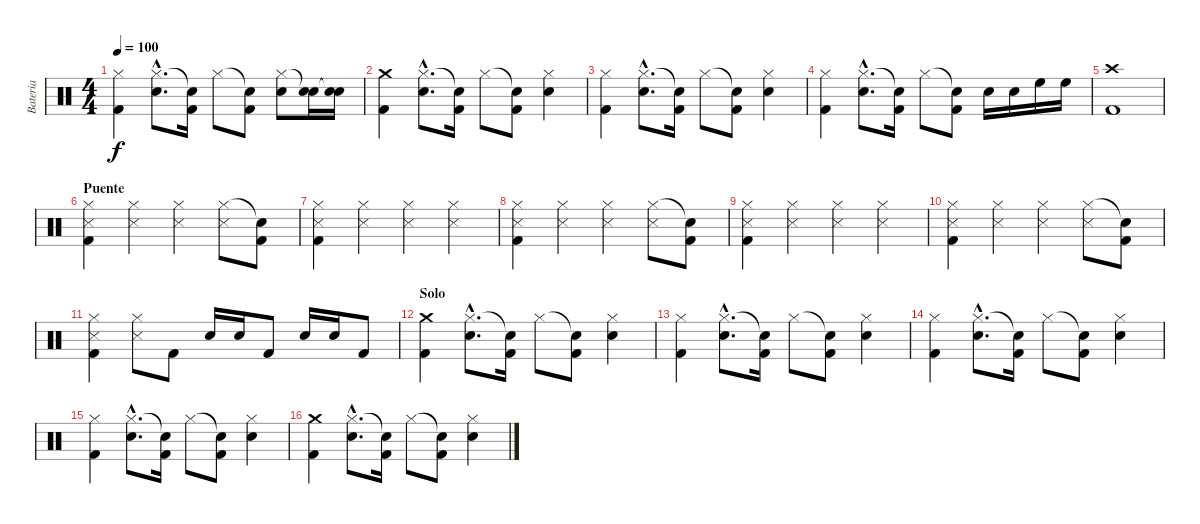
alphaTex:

\track ("Bateria" "Bateria") {instrument percussion}
\staff {score}
\articulation defaults
\ts (4 4)
\tempo 100
\clef neutral
\ks c
("Hi-Hat (closed)" "Kick (hit) 2").4{dy f} ("Hi-Hat (closed)"{hac} "Electric Snare (hit)"{hac}).8{d} ("Snare (hit)"{t} "Kick (hit) 2").16 "Hi-Hat (closed)".8 ("Snare (hit)"{t} "Kick (hit) 2").8 ("Hi-Hat (closed)" "Electric Snare (hit)").8 ("Snare (hit)"{t} "Electric Snare (hit)").16 ("Snare (hit)"{t} "Electric Snare (hit)").16 |
("Crash medium (hit)" "Kick (hit) 2").4 ("Hi-Hat (closed)"{hac} "Electric Snare (hit)"{hac}).8{d} ("Snare (hit)"{t} "Kick (hit) 2").16 "Hi-Hat (closed)".8 ("Snare (hit)"{t} "Kick (hit) 2").8 ("Hi-Hat (closed)" "Electric Snare (hit)").4 |
("Hi-Hat (closed)" "Kick (hit) 2").4 ("Hi-Hat (closed)"{hac} "Electric Snare (hit)"{hac}).8{d} ("Snare (hit)"{t} "Kick (hit) 2").16 "Hi-Hat (closed)".8 ("Snare (hit)"{t} "Kick (hit) 2").8 ("Hi-Hat (closed)" "Electric Snare (hit)").4 |
("Hi-Hat (closed)" "Kick (hit) 2").4 ("Hi-Hat (closed)"{hac} "Electric Snare (hit)"{hac}).8{d} ("Snare (hit)"{t} "Kick (hit) 2").16 "Hi-Hat (closed)".8 ("Snare (hit)"{t} "Kick (hit) 2").8 "Electric Snare (hit)".16 "Electric Snare (hit)".16 "High Floor Tom (hit)".16 "High Floor Tom (hit)".16 |
("Crash high (hit)" "Kick (hit) 2").1 |
\section ("" "Puente")
("Hi-Hat (closed)" "Snare (side stick) 3" "Kick (hit) 2").4 ("Hi-Hat (closed)" "Snare (side stick) 3").4 ("Hi-Hat (closed)" "Snare (side stick) 3").4 ("Hi-Hat (closed)" "Snare (side stick) 3").8 ("Snare (hit)"{t} "Kick (hit) 2").8 |
("Hi-Hat (closed)" "Snare (side stick) 3" "Kick (hit) 2").4 ("Hi-Hat (closed)" "Snare (side stick) 3").4 ("Hi-Hat (closed)" "Snare (side stick) 3").4 ("Hi-Hat (closed)" "Snare (side stick) 3").4 |
("Hi-Hat (closed)" "Snare (side stick) 3" "Kick (hit) 2").4 ("Hi-Hat (closed)" "Snare (side stick) 3").4 ("Hi-Hat (closed)" "Snare (side stick) 3").4 ("Hi-Hat (closed)" "Snare (side stick) 3").8 ("Snare (hit)"{t} "Kick (hit) 2").8 |
("Hi-Hat (closed)" "Snare (side stick) 3" "Kick (hit) 2").4 ("Hi-Hat (closed)" "Snare (side stick) 3").4 ("Hi-Hat (closed)" "Snare (side stick) 3").4 ("Hi-Hat (closed)" "Snare (side stick) 3").4 |
("Hi-Hat (closed)" "Snare (side stick) 3" "Kick (hit) 2").4 ("Hi-Hat (closed)" "Snare (side stick) 3").4 ("Hi-Hat (closed)" "Snare (side stick) 3").4 ("Hi-Hat (closed)" "Snare (side stick) 3").8 ("Snare (hit)"{t} "Kick (hit) 2").8 |
("Hi-Hat (closed)" "Snare (side stick) 3" "Kick (hit) 2").4 ("Hi-Hat (closed)" "Snare (side stick) 3").8 "Kick (hit) 2".8 "Electric Snare (hit)".16 "Electric Snare (hit)".16 "Kick (hit) 2".8 "Electric Snare (hit)".16 "Electric Snare (hit)".16 "Kick (hit) 2".8 |
\section ("" "Solo")
("Crash medium (hit)" "Kick (hit) 2").4 ("Hi-Hat (closed)"{hac} "Electric Snare (hit)"{hac}).8{d} ("Snare (hit)"{t} "Kick (hit) 2").16 "Hi-Hat (closed)".8 ("Snare (hit)"{t} "Kick (hit) 2").8 ("Hi-Hat (closed)" "Electric Snare (hit)").4 |
("Hi-Hat (closed)" "Kick (hit) 2").4 ("Hi-Hat (closed)"{hac} "Electric Snare (hit)"{hac}).8{d} ("Snare (hit)"{t} "Kick (hit) 2").16 "Hi-Hat (closed)".8 ("Snare (hit)"{t} "Kick (hit) 2").8 ("Hi-Hat (closed)" "Electric Snare (hit)").4 |
("Hi-Hat (closed)" "Kick (hit) 2").4 ("Hi-Hat (closed)"{hac} "Electric Snare (hit)"{hac}).8{d} ("Snare (hit)"{t} "Kick (hit) 2").16 "Hi-Hat (closed)".8 ("Snare (hit)"{t} "Kick (hit) 2").8 ("Hi-Hat (closed)" "Electric Snare (hit)").4 |
("Hi-Hat (closed)" "Kick (hit) 2").4 ("Hi-Hat (closed)"{hac} "Electric Snare (hit)"{hac}).8{d} ("Snare (hit)"{t} "Kick (hit) 2").16 "Hi-Hat (closed)".8 ("Snare (hit)"{t} "Kick (hit) 2").8 ("Hi-Hat (closed)" "Electric Snare (hit)").4 |
("Crash medium (hit)" "Kick (hit) 2").4 ("Hi-Hat (closed)"{hac} "Electric Snare (hit)"{hac}).8{d} ("Snare (hit)"{t} "Kick (hit) 2").16 "Hi-Hat (closed)".8 ("Snare (hit)"{t} "Kick (hit) 2").8 ("Hi-Hat (closed)" "Electric Snare (hit)").4
